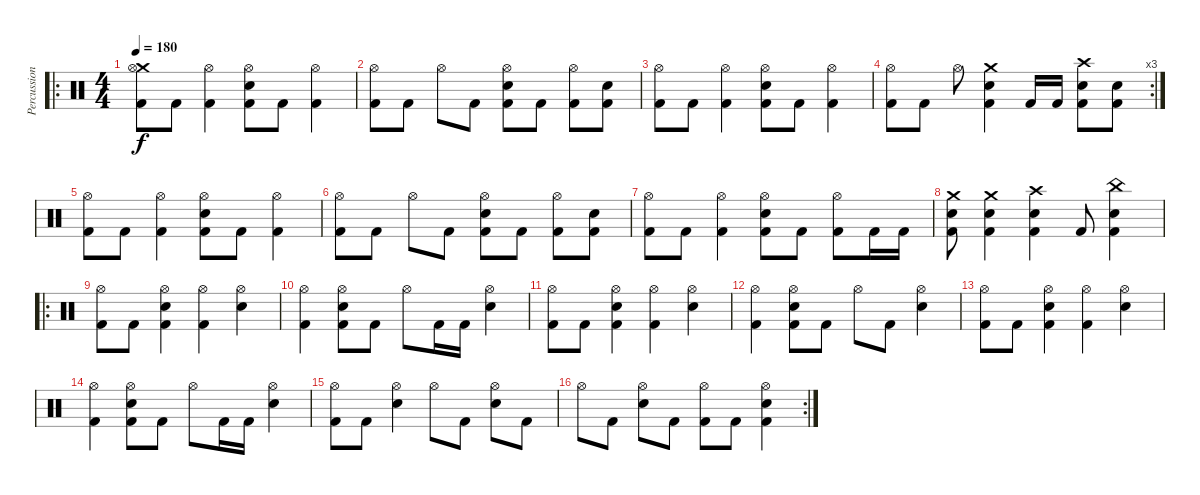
\track ("Percussion" "Percussion") {instrument percussion}
\staff {score}
\articulation defaults
\ro
\ts (4 4)
\tempo 180
\clef neutral
\ks c
("Crash medium (hit)" "Hi-Hat (open)" "Kick (hit) 2").8{dy f} "Kick (hit) 2".8 ("Hi-Hat (open)" "Kick (hit) 2").4 ("Hi-Hat (open)" "Electric Snare (hit)" "Kick (hit) 2").8 "Kick (hit) 2".8 ("Hi-Hat (open)" "Kick (hit) 2").4 |
("Hi-Hat (open)" "Kick (hit) 2").8 "Kick (hit) 2".8 "Hi-Hat (open)".8 "Kick (hit) 2".8 ("Hi-Hat (open)" "Electric Snare (hit)" "Kick (hit) 2").8 "Kick (hit) 2".8 ("Hi-Hat (open)" "Kick (hit) 2").8 ("Electric Snare (hit)" "Kick (hit) 2").8 |
("Hi-Hat (open)" "Kick (hit) 2").8 "Kick (hit) 2".8 ("Hi-Hat (open)" "Kick (hit) 2").4 ("Hi-Hat (open)" "Electric Snare (hit)" "Kick (hit) 2").8 "Kick (hit) 2".8 ("Hi-Hat (open)" "Kick (hit) 2").4 |
\rc 3
("Hi-Hat (open)" "Kick (hit) 2").8 "Kick (hit) 2".8 "Hi-Hat (open)".8 ("Crash medium (hit)" "Electric Snare (hit)" "Kick (hit) 2").4 "Kick (hit) 2".16 "Kick (hit) 2".16 ("Crash high (hit)" "Electric Snare (hit)" "Kick (hit) 2").8 ("Electric Snare (hit)" "Kick (hit) 2").8 |
("Hi-Hat (open)" "Kick (hit) 2").8 "Kick (hit) 2".8 ("Hi-Hat (open)" "Kick (hit) 2").4 ("Hi-Hat (open)" "Electric Snare (hit)" "Kick (hit) 2").8 "Kick (hit) 2".8 ("Hi-Hat (open)" "Kick (hit) 2").4 |
("Hi-Hat (open)" "Kick (hit) 2").8 "Kick (hit) 2".8 "Hi-Hat (open)".8 "Kick (hit) 2".8 ("Hi-Hat (open)" "Electric Snare (hit)" "Kick (hit) 2").8 "Kick (hit) 2".8 ("Hi-Hat (open)" "Kick (hit) 2").8 ("Electric Snare (hit)" "Kick (hit) 2").8 |
("Hi-Hat (open)" "Kick (hit) 2").8 "Kick (hit) 2".8 ("Hi-Hat (open)" "Kick (hit) 2").4 ("Hi-Hat (open)" "Electric Snare (hit)" "Kick (hit) 2").8 "Kick (hit) 2".8 ("Hi-Hat (open)" "Kick (hit) 2").8 "Kick (hit) 2".16 "Kick (hit) 2".16 |
("Crash medium (hit)" "Electric Snare (hit)" "Kick (hit) 2").8 ("Crash medium (hit)" "Electric Snare (hit)" "Kick (hit) 2").4 ("Crash high (hit)" "Electric Snare (hit)" "Kick (hit) 2").4 "Kick (hit) 2".8 ("China (hit)" "Electric Snare (hit)" "Kick (hit) 2").4 |
\ro
("Hi-Hat (open)" "Kick (hit) 2").8 "Kick (hit) 2".8 ("Hi-Hat (open)" "Electric Snare (hit)" "Kick (hit) 2").4 ("Hi-Hat (open)" "Kick (hit) 2").4 ("Hi-Hat (open)" "Electric Snare (hit)").4 |
("Hi-Hat (open)" "Kick (hit) 2").4 ("Hi-Hat (open)" "Electric Snare (hit)" "Kick (hit) 2").8 "Kick (hit) 2".8 "Hi-Hat (open)".8 "Kick (hit) 2".16 "Kick (hit) 2".16 ("Hi-Hat (open)" "Electric Snare (hit)").4 |
("Hi-Hat (open)" "Kick (hit) 2").8 "Kick (hit) 2".8 ("Hi-Hat (open)" "Electric Snare (hit)" "Kick (hit) 2").4 ("Hi-Hat (open)" "Kick (hit) 2").4 ("Hi-Hat (open)" "Electric Snare (hit)").4 |
("Hi-Hat (open)" "Kick (hit) 2").4 ("Hi-Hat (open)" "Electric Snare (hit)" "Kick (hit) 2").8 "Kick (hit) 2".8 "Hi-Hat (open)".8 "Kick (hit) 2".8 ("Hi-Hat (open)" "Electric Snare (hit)").4 |
("Hi-Hat (open)" "Kick (hit) 2").8 "Kick (hit) 2".8 ("Hi-Hat (open)" "Electric Snare (hit)" "Kick (hit) 2").4 ("Hi-Hat (open)" "Kick (hit) 2").4 ("Hi-Hat (open)" "Electric Snare (hit)").4 |
("Hi-Hat (open)" "Kick (hit) 2").4 ("Hi-Hat (open)" "Electric Snare (hit)" "Kick (hit) 2").8 "Kick (hit) 2".8 "Hi-Hat (open)".8 "Kick (hit) 2".16 "Kick (hit) 2".16 ("Hi-Hat (open)" "Electric Snare (hit)").4 |
("Hi-Hat (open)" "Kick (hit) 2").8 "Kick (hit) 2".8 ("Hi-Hat (open)" "Electric Snare (hit)").4 "Hi-Hat (open)".8 "Kick (hit) 2".8 ("Hi-Hat (open)" "Electric Snare (hit)").8 "Kick (hit) 2".8 |
\rc 2 "Hi-Hat (open)".8 "Kick (hit) 2".8
("Hi-Hat (open)" "Electric Snare (hit)").8 "Kick (hit) 2".8 ("Hi-Hat (open)" "Kick (hit) 2").8 "Kick (hit) 2".8 ("Hi-Hat (open)" "Electric Snare (hit)" "Kick (hit) 2").4
